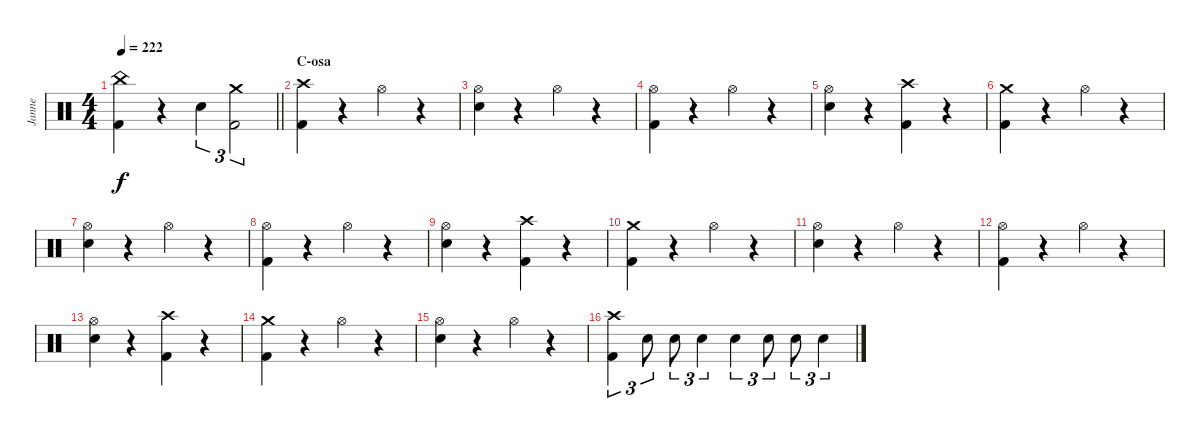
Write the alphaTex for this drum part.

\track ("Janne" "Janne") {instrument percussion}
\staff {score}
\articulation defaults
\ts (4 4)
\tempo 222
\clef neutral
\barLineRight lightlight
\ks c
("China (hit)" "Kick (hit) 2").4{dy f} r.4 "Electric Snare (hit)".4{tu (3 2)} ("Crash medium (hit)" "Kick (hit) 2").2{tu (3 2)} |
\section ("" "C-osa")
("Crash high (hit)" "Kick (hit) 2").4 r.4 "Hi-Hat (open)".4 r.4 |
("Hi-Hat (open)" "Electric Snare (hit)").4 r.4 "Hi-Hat (open)".4 r.4 |
("Hi-Hat (open)" "Kick (hit) 2").4 r.4 "Hi-Hat (open)".4 r.4 |
("Hi-Hat (open)" "Electric Snare (hit)").4 r.4 ("Crash high (hit)" "Kick (hit) 2").4 r.4 |
("Crash medium (hit)" "Kick (hit) 2").4 r.4 "Hi-Hat (open)".4 r.4 |
("Hi-Hat (open)" "Electric Snare (hit)").4 r.4 "Hi-Hat (open)".4 r.4 |
("Hi-Hat (open)" "Kick (hit) 2").4 r.4 "Hi-Hat (open)".4 r.4 |
("Hi-Hat (open)" "Electric Snare (hit)").4 r.4 ("Crash high (hit)" "Kick (hit) 2").4 r.4 |
("Crash medium (hit)" "Kick (hit) 2").4 r.4 "Hi-Hat (open)".4 r.4 |
("Hi-Hat (open)" "Electric Snare (hit)").4 r.4 "Hi-Hat (open)".4 r.4 |
("Hi-Hat (open)" "Kick (hit) 2").4 r.4 "Hi-Hat (open)".4 r.4 |
("Hi-Hat (open)" "Electric Snare (hit)").4 r.4 ("Crash high (hit)" "Kick (hit) 2").4 r.4 |
("Crash medium (hit)" "Kick (hit) 2").4 r.4 "Hi-Hat (open)".4 r.4 |
("Hi-Hat (open)" "Electric Snare (hit)").4 r.4 "Hi-Hat (open)".4 r.4 |
("Crash high (hit)" "Kick (hit) 2").4{tu (3 2)} "Electric Snare (hit)".8{tu (3 2)} "Electric Snare (hit)".8{tu (3 2)} "Electric Snare (hit)".4{tu (3 2)} "Electric Snare (hit)".4{tu (3 2)} "Electric Snare (hit)".8{tu (3 2)} "Electric Snare (hit)".8{tu (3 2)} "Electric Snare (hit)".4{tu (3 2)}
